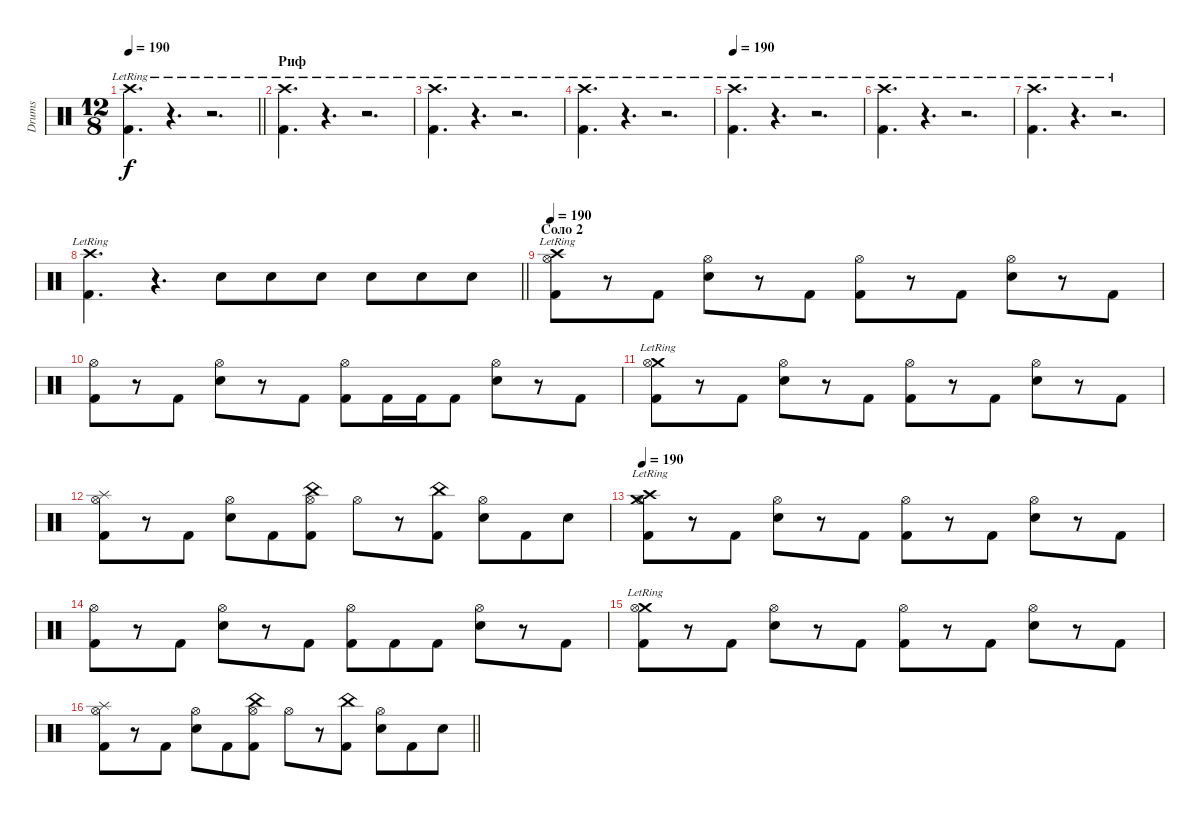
\track ("Drums" "Drums") {instrument percussion}
\staff {score}
\articulation defaults
\ts (12 8)
\tempo 190
\clef neutral
\barLineRight lightlight
\ks c
("Crash high (hit)"{lr} "Kick (hit) 2").4{d dy f} r.4{d} r.2{d} |
\section ("" "Риф")
("Crash high (hit)"{lr} "Kick (hit) 2").4{d} r.4{d} r.2{d} |
("Crash high (hit)"{lr} "Kick (hit) 2").4{d} r.4{d} r.2{d} |
("Crash high (hit)"{lr} "Kick (hit) 2").4{d} r.4{d} r.2{d} |
\tempo 190
("Crash high (hit)"{lr} "Kick (hit) 2").4{d} r.4{d} r.2{d} |
("Crash high (hit)"{lr} "Kick (hit) 2").4{d} r.4{d} r.2{d} |
("Crash high (hit)"{lr} "Kick (hit) 2").4{d} r.4{d} r.2{d} |
\barLineRight lightlight
("Crash high (hit)"{lr} "Kick (hit) 2").4{d} r.4{d} "Electric Snare (hit)".8 "Electric Snare (hit)".8 "Electric Snare (hit)".8 "Electric Snare (hit)".8 "Electric Snare (hit)".8 "Electric Snare (hit)".8 |
\section ("" "Соло 2")
\tempo 190
("Crash high (hit)"{lr} "Kick (hit) 2" "Hi-Hat (open)").8 r.8 "Kick (hit) 2".8 ("Electric Snare (hit)" "Hi-Hat (open)").8 r.8 "Kick (hit) 2".8 ("Kick (hit) 2" "Hi-Hat (open)").8 r.8 "Kick (hit) 2".8 ("Electric Snare (hit)" "Hi-Hat (open)").8 r.8 "Kick (hit) 2".8 |
("Kick (hit) 2" "Hi-Hat (open)").8 r.8 "Kick (hit) 2".8 ("Electric Snare (hit)" "Hi-Hat (open)").8 r.8 "Kick (hit) 2".8 ("Kick (hit) 2" "Hi-Hat (open)").8 "Kick (hit) 2".16 "Kick (hit) 2".16 "Kick (hit) 2".8 ("Electric Snare (hit)" "Hi-Hat (open)").8 r.8 "Kick (hit) 2".8 |
("Crash medium (hit)"{lr} "Kick (hit) 2" "Hi-Hat (open)").8 r.8 "Kick (hit) 2".8 ("Electric Snare (hit)" "Hi-Hat (open)").8 r.8 "Kick (hit) 2".8 ("Kick (hit) 2" "Hi-Hat (open)").8 r.8 "Kick (hit) 2".8 ("Electric Snare (hit)" "Hi-Hat (open)").8 r.8 "Kick (hit) 2".8 |
("Splash (hit)" "Kick (hit) 2" "Hi-Hat (open)").8 r.8 "Kick (hit) 2".8 ("Electric Snare (hit)" "Hi-Hat (open)").8 "Kick (hit) 2".8 ("China (hit)" "Kick (hit) 2" "Hi-Hat (open)").8 "Hi-Hat (open)".8 r.8 ("China (hit)" "Kick (hit) 2").8 ("Electric Snare (hit)" "Hi-Hat (open)").8 "Kick (hit) 2".8 "Electric Snare (hit)".8 |
\tempo 190
("Crash high (hit)"{lr} "Crash medium (hit)"{lr} "Kick (hit) 2" "Hi-Hat (open)").8 r.8 "Kick (hit) 2".8 ("Electric Snare (hit)" "Hi-Hat (open)").8 r.8 "Kick (hit) 2".8 ("Kick (hit) 2" "Hi-Hat (open)").8 r.8 "Kick (hit) 2".8 ("Electric Snare (hit)" "Hi-Hat (open)").8 r.8 "Kick (hit) 2".8 |
("Kick (hit) 2" "Hi-Hat (open)").8 r.8 "Kick (hit) 2".8 ("Electric Snare (hit)" "Hi-Hat (open)").8 r.8 "Kick (hit) 2".8 ("Kick (hit) 2" "Hi-Hat (open)").8 "Kick (hit) 2".8 "Kick (hit) 2".8 ("Electric Snare (hit)" "Hi-Hat (open)").8 r.8 "Kick (hit) 2".8 |
("Crash medium (hit)"{lr} "Kick (hit) 2" "Hi-Hat (open)").8 r.8 "Kick (hit) 2".8 ("Electric Snare (hit)" "Hi-Hat (open)").8 r.8 "Kick (hit) 2".8 ("Kick (hit) 2" "Hi-Hat (open)").8 r.8 "Kick (hit) 2".8 ("Electric Snare (hit)" "Hi-Hat (open)").8 r.8 "Kick (hit) 2".8 |
\barLineRight lightlight
("Splash (hit)" "Kick (hit) 2" "Hi-Hat (open)").8 r.8 "Kick (hit) 2".8 ("Electric Snare (hit)" "Hi-Hat (open)").8 "Kick (hit) 2".8 ("China (hit)" "Kick (hit) 2" "Hi-Hat (open)").8 "Hi-Hat (open)".8 r.8 ("China (hit)" "Kick (hit) 2").8 ("Electric Snare (hit)" "Hi-Hat (open)").8 "Kick (hit) 2".8 "Electric Snare (hit)".8
